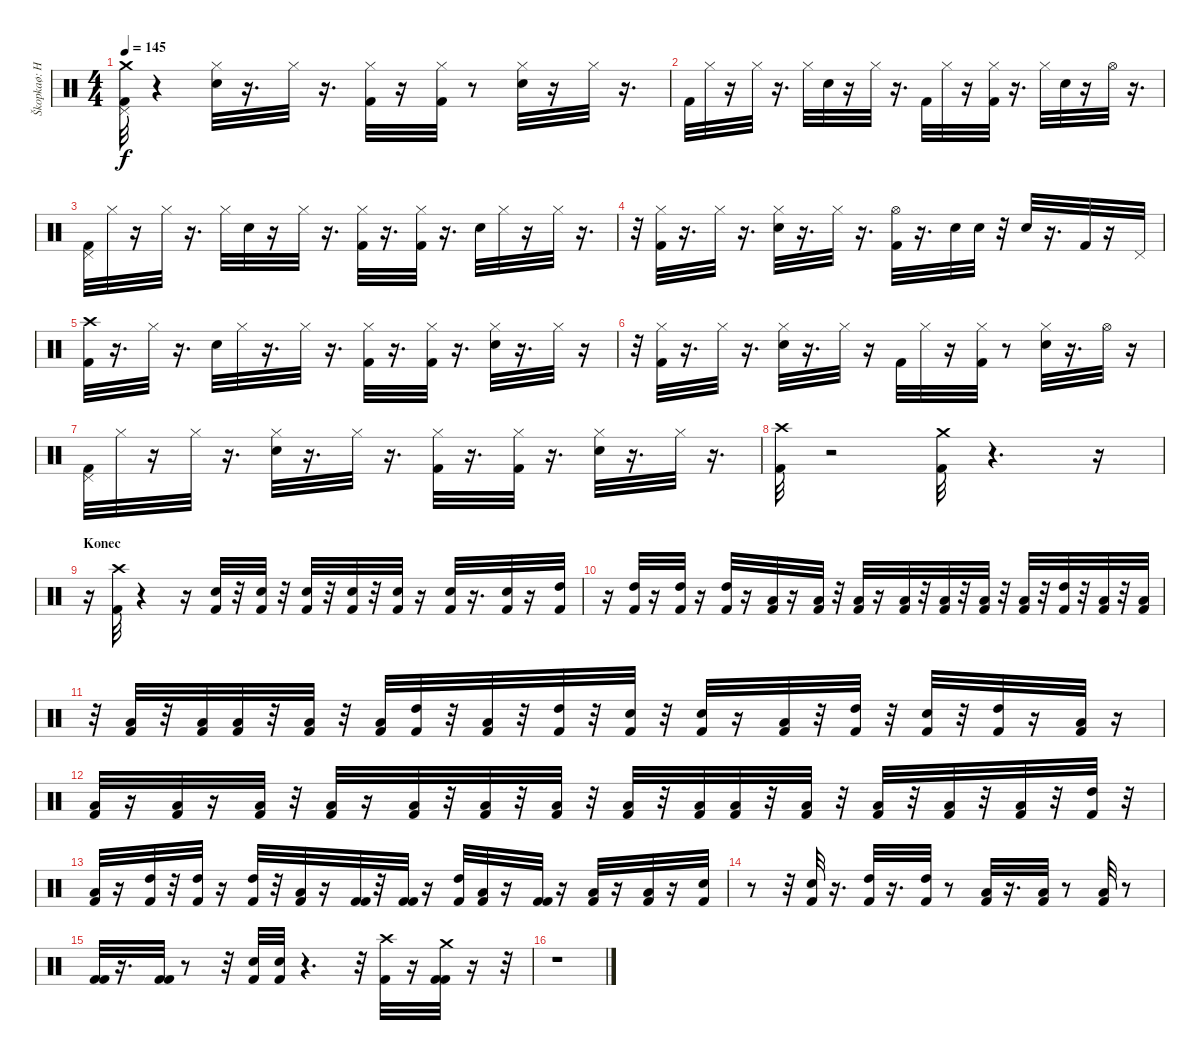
\track ("Škopkaø: Hurvajs" "Škopkaø: H") {instrument percussion}
\staff {score}
\articulation defaults
\ts (4 4)
\tempo 145
\clef neutral
\ks c
("Pedal Hi-Hat (hit)" "Kick (hit) 2" "Crash medium (hit)").32{dy f} r.4 ("Snare (hit) 2" "Hi-Hat (closed)").32 r.16{d} "Hi-Hat (closed)".32 r.16{d} ("Kick (hit) 2" "Hi-Hat (closed)").32 r.16 ("Kick (hit) 2" "Hi-Hat (closed)").32 r.8 ("Hi-Hat (closed)" "Snare (hit) 2").32 r.16 "Hi-Hat (closed)".32 r.16{d} |
"Kick (hit) 2".32 "Hi-Hat (closed)".32 r.16 "Hi-Hat (closed)".32 r.16{d} "Hi-Hat (closed)".32 "Snare (hit) 2".32 r.16 "Hi-Hat (closed)".32 r.16{d} "Kick (hit) 2".32 "Hi-Hat (closed)".32 r.16 ("Kick (hit) 2" "Hi-Hat (closed)").32 r.16{d} "Hi-Hat (closed)".32 "Snare (hit) 2".32 r.16 "Hi-Hat (open)".32 r.16{d} |
("Pedal Hi-Hat (hit)" "Kick (hit) 2").32 "Hi-Hat (closed)".32 r.16 "Hi-Hat (closed)".32 r.16{d} "Hi-Hat (closed)".32 "Snare (hit) 2".32 r.16 "Hi-Hat (closed)".32 r.16{d} ("Hi-Hat (closed)" "Kick (hit) 2").32 r.16{d} ("Hi-Hat (closed)" "Kick (hit) 2").32 r.16{d} "Snare (hit) 2".32 "Hi-Hat (closed)".32 r.16 "Hi-Hat (closed)".32 r.16{d} |
r.32 ("Kick (hit) 2" "Hi-Hat (closed)").32 r.16{d} "Hi-Hat (closed)".32 r.16{d} ("Snare (hit) 2" "Hi-Hat (closed)").32 r.16{d} "Hi-Hat (closed)".32 r.16{d} ("Kick (hit) 2" "Hi-Hat (open)").32 r.16{d} "Snare (hit) 2".32 "Snare (hit) 2".32 r.32 "Snare (hit) 2".32 r.16{d} "Kick (hit) 2".32 r.16 "Pedal Hi-Hat (hit)".32 |
("Kick (hit) 2" "Crash high (hit)").32 r.16{d} "Hi-Hat (closed)".32 r.16{d} "Snare (hit) 2".32 "Hi-Hat (closed)".32 r.16{d} "Hi-Hat (closed)".32 r.16{d} ("Kick (hit) 2" "Hi-Hat (closed)").32 r.16{d} ("Kick (hit) 2" "Hi-Hat (closed)").32 r.16{d} ("Snare (hit) 2" "Hi-Hat (closed)").32 r.16{d} "Hi-Hat (closed)".32 r.16 |
r.32 ("Kick (hit) 2" "Hi-Hat (closed)").32 r.16{d} "Hi-Hat (closed)".32 r.16{d} ("Snare (hit) 2" "Hi-Hat (closed)").32 r.16{d} "Hi-Hat (closed)".32 r.16 "Kick (hit) 2".32 "Hi-Hat (closed)".32 r.16 ("Kick (hit) 2" "Hi-Hat (closed)").32 r.8 ("Snare (hit) 2" "Hi-Hat (closed)").32 r.16{d} "Hi-Hat (open)".32 r.16 |
("Pedal Hi-Hat (hit)" "Kick (hit) 2").32 "Hi-Hat (closed)".32 r.16 "Hi-Hat (closed)".32 r.16{d} ("Snare (hit) 2" "Hi-Hat (closed)").32 r.16{d} "Hi-Hat (closed)".32 r.16{d} ("Kick (hit) 2" "Hi-Hat (closed)").32 r.16{d} ("Kick (hit) 2" "Hi-Hat (closed)").32 r.16{d} ("Snare (hit) 2" "Hi-Hat (closed)").32 r.16{d} "Hi-Hat (closed)".32 r.16{d} |
("Kick (hit) 2" "Crash high (hit)").32 r.2 ("Kick (hit) 2" "Crash medium (hit)").32 r.4{d} r.16 |
\section ("" "Konec")
r.16 ("Kick (hit) 2" "Crash high (hit)").32 r.4 r.16 ("Snare (hit) 2" "Kick (hit) 2").32 r.32 ("Snare (hit) 2" "Kick (hit) 2").32 r.32 ("Snare (hit) 2" "Kick (hit) 2").32 r.32 ("Snare (hit) 2" "Kick (hit) 2").32 r.32 ("Snare (hit) 2" "Kick (hit) 2").32 r.16 ("Snare (hit) 2" "Kick (hit) 2").32 r.16{d} ("Snare (hit) 2" "Kick (hit) 2").32 r.16 ("High Tom (hit)" "Kick (hit) 2").32 |
r.16 ("High Tom (hit)" "Kick (hit) 2").32 r.16 ("High Tom (hit)" "Kick (hit) 2").32 r.16 ("High Tom (hit)" "Kick (hit) 2").32 r.16 ("Low Tom (hit)" "Kick (hit) 2").32 r.16 ("Low Tom (hit)" "Kick (hit) 2").32 r.32 ("Low Tom (hit)" "Kick (hit) 2").32 r.16 ("Low Tom (hit)" "Kick (hit) 2").32 r.32 ("Low Floor Tom (hit)" "Kick (hit) 2").32 r.32 ("Low Tom (hit)" "Kick (hit) 2").32 r.32 ("Low Tom (hit)" "Kick (hit) 2").32 r.32 ("High Tom (hit)" "Kick (hit) 2").32 r.32 ("Low Tom (hit)" "Kick (hit) 2").32 r.32 ("Low Tom (hit)" "Kick (hit) 2").32 |
r.32 ("Low Tom (hit)" "Kick (hit) 2").32 r.32 ("Low Tom (hit)" "Kick (hit) 2").32 ("Low Floor Tom (hit)" "Kick (hit) 2").32 r.32 ("Low Tom (hit)" "Kick (hit) 2").32 r.32 ("Low Tom (hit)" "Kick (hit) 2").32 ("High Tom (hit)" "Kick (hit) 2").32 r.32 ("Low Tom (hit)" "Kick (hit) 2").32 r.32 ("High Tom (hit)" "Kick (hit) 2").32 r.32 ("Snare (hit) 2" "Kick (hit) 2").32 r.32 ("Snare (hit) 2" "Kick (hit) 2").32 r.16 ("Low Tom (hit)" "Kick (hit) 2").32 r.32 ("High Tom (hit)" "Kick (hit) 2").32 r.32 ("Snare (hit) 2" "Kick (hit) 2").32 r.32 ("High Tom (hit)" "Kick (hit) 2").32 r.16 ("Low Tom (hit)" "Kick (hit) 2").32 r.16 |
("Low Tom (hit)" "Kick (hit) 2").32 r.16 ("Low Floor Tom (hit)" "Kick (hit) 2").32 r.16 ("Low Tom (hit)" "Kick (hit) 2").32 r.32 ("Low Tom (hit)" "Kick (hit) 2").32 r.16 ("Low Tom (hit)" "Kick (hit) 2").32 r.32 ("Low Floor Tom (hit)" "Kick (hit) 2").32 r.32 ("Low Tom (hit)" "Kick (hit) 2").32 r.32 ("Low Tom (hit)" "Kick (hit) 2").32 r.32 ("Low Floor Tom (hit)" "Kick (hit) 2").32 ("Low Tom (hit)" "Kick (hit) 2").32 r.32 ("Low Floor Tom (hit)" "Kick (hit) 2").32 r.32 ("Low Floor Tom (hit)" "Kick (hit) 2").32 r.32 ("Low Tom (hit)" "Kick (hit) 2").32 r.32 ("Low Tom (hit)" "Kick (hit) 2").32 r.32 ("High Tom (hit)" "Kick (hit) 2").32 r.32 |
("Low Tom (hit)" "Kick (hit) 2").32 r.16 ("High Tom (hit)" "Kick (hit) 2").32 r.32 ("High Tom (hit)" "Kick (hit) 2").32 r.16 ("High Tom (hit)" "Kick (hit) 2").32 r.32 ("Low Tom (hit)" "Kick (hit) 2").32 r.16 ("Kick (hit) 2" "Kick (hit) 2").32 r.32 ("Kick (hit) 2" "Kick (hit) 2").32 r.16 ("High Tom (hit)" "Kick (hit) 2").32 ("Low Floor Tom (hit)" "Kick (hit) 2").32 r.16 ("Kick (hit) 2" "Kick (hit) 2").32 r.16 ("Low Tom (hit)" "Kick (hit) 2").32 r.16 ("Low Floor Tom (hit)" "Kick (hit) 2").32 r.16 ("Snare (hit) 2" "Kick (hit) 2").32 |
r.8 r.32 ("Snare (hit) 2" "Kick (hit) 2").32 r.16{d} ("High Tom (hit)" "Kick (hit) 2").32 r.16{d} ("High Tom (hit)" "Kick (hit) 2").32 r.8 ("Low Tom (hit)" "Kick (hit) 2").32 r.16{d} ("Low Tom (hit)" "Kick (hit) 2").32 r.8 ("Low Floor Tom (hit)" "Kick (hit) 2").32 r.8 |
("Kick (hit) 2" "Kick (hit) 2").32 r.16{d} ("Kick (hit) 2" "Kick (hit) 2").32 r.8 r.32 ("Snare (hit) 2" "Kick (hit) 2").32 ("Snare (hit) 2" "Kick (hit) 2").32 r.4{d} r.32 ("Crash high (hit)" "Kick (hit) 2").32 r.16 ("Kick (hit) 2" "Crash medium (hit)" "Kick (hit) 2").32 r.16 r.32 |
r.1
